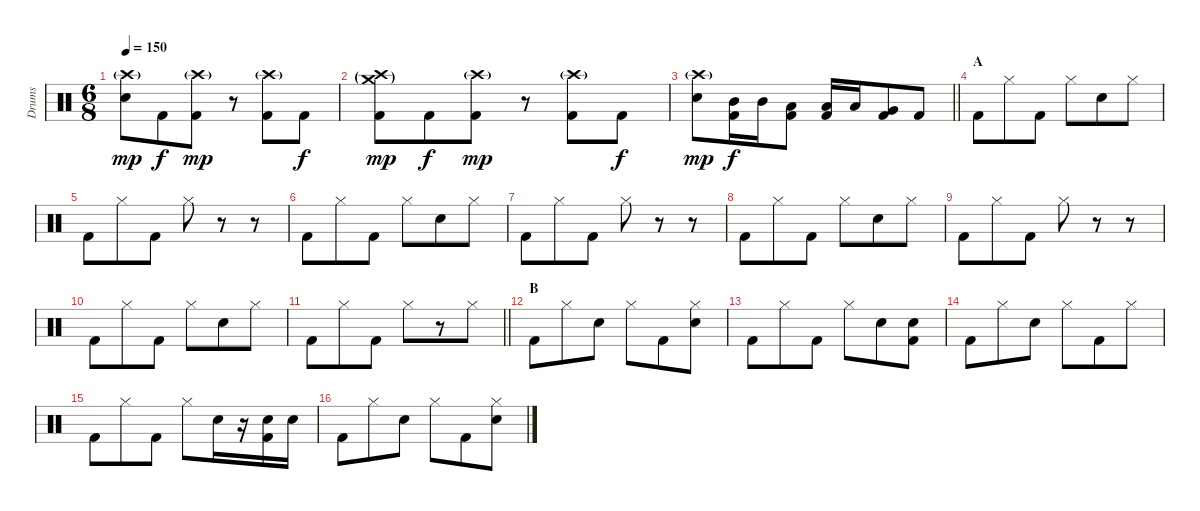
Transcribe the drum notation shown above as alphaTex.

\track ("Drums" "Drums") {mute instrument percussion}
\staff {score}
\articulation defaults
\ts (6 8)
\tempo 150
\clef neutral
\ks c
("Crash high (hit)"{g} "Electric Snare (hit)").8{dy mp} "Kick (hit) 2".8{dy f} ("Crash high (hit)"{g} "Kick (hit) 2").8{dy mp} r.8 ("Crash high (hit)"{g} "Kick (hit) 2").8 "Kick (hit) 2".8{dy f} |
("Crash medium (hit)"{g} "Crash high (hit)"{g} "Kick (hit) 2").8{dy mp} "Kick (hit) 2".8{dy f} ("Crash high (hit)"{g} "Kick (hit) 2").8{dy mp} r.8 ("Crash high (hit)"{g} "Kick (hit) 2").8 "Kick (hit) 2".8{dy f} |
\barLineRight lightlight
("Crash high (hit)"{g} "Electric Snare (hit)").8{dy mp} ("Mid Tom (hit)" "Kick (hit) 2").16{dy f} "Mid Tom (hit)".16 ("Low Tom (hit)" "Kick (hit) 2").8 ("Low Tom (hit)" "Kick (hit) 2").16 "Low Tom (hit)".16 ("Very Low Tom (hit)" "Kick (hit) 2").8 "Kick (hit) 2".8 |
\section ("" "A")
"Kick (hit) 2".8 "Hi-Hat (closed)".8 "Kick (hit) 2".8 "Hi-Hat (closed)".8 "Electric Snare (hit)".8 "Hi-Hat (closed)".8 |
"Kick (hit) 2".8 "Hi-Hat (closed)".8 "Kick (hit) 2".8 "Hi-Hat (closed)".8 r.8 r.8 |
"Kick (hit) 2".8 "Hi-Hat (closed)".8 "Kick (hit) 2".8 "Hi-Hat (closed)".8 "Electric Snare (hit)".8 "Hi-Hat (closed)".8 |
"Kick (hit) 2".8 "Hi-Hat (closed)".8 "Kick (hit) 2".8 "Hi-Hat (closed)".8 r.8 r.8 |
"Kick (hit) 2".8 "Hi-Hat (closed)".8 "Kick (hit) 2".8 "Hi-Hat (closed)".8 "Electric Snare (hit)".8 "Hi-Hat (closed)".8 |
"Kick (hit) 2".8 "Hi-Hat (closed)".8 "Kick (hit) 2".8 "Hi-Hat (closed)".8 r.8 r.8 |
"Kick (hit) 2".8 "Hi-Hat (closed)".8 "Kick (hit) 2".8 "Hi-Hat (closed)".8 "Electric Snare (hit)".8 "Hi-Hat (closed)".8 |
\barLineRight lightlight "Kick (hit) 2".8 "Hi-Hat (closed)".8 "Kick (hit) 2".8 "Hi-Hat (closed)".8
r.8 "Hi-Hat (closed)".8 |
\section ("" "B")
"Kick (hit) 2".8 "Hi-Hat (closed)".8 "Electric Snare (hit)".8 "Hi-Hat (closed)".8 "Kick (hit) 2".8 ("Hi-Hat (closed)" "Electric Snare (hit)").8 |
"Kick (hit) 2".8 "Hi-Hat (closed)".8 "Kick (hit) 2".8 "Hi-Hat (closed)".8 "Electric Snare (hit)".8 ("Electric Snare (hit)" "Kick (hit) 2").8 |
"Kick (hit) 2".8 "Hi-Hat (closed)".8 "Electric Snare (hit)".8 "Hi-Hat (closed)".8 "Kick (hit) 2".8 "Hi-Hat (closed)".8 |
"Kick (hit) 2".8 "Hi-Hat (closed)".8 "Kick (hit) 2".8 "Hi-Hat (closed)".8 "Electric Snare (hit)".16 r.16 ("Electric Snare (hit)" "Kick (hit) 2").16 "Electric Snare (hit)".16 |
"Kick (hit) 2".8 "Hi-Hat (closed)".8 "Electric Snare (hit)".8 "Hi-Hat (closed)".8 "Kick (hit) 2".8 ("Hi-Hat (closed)" "Electric Snare (hit)").8
